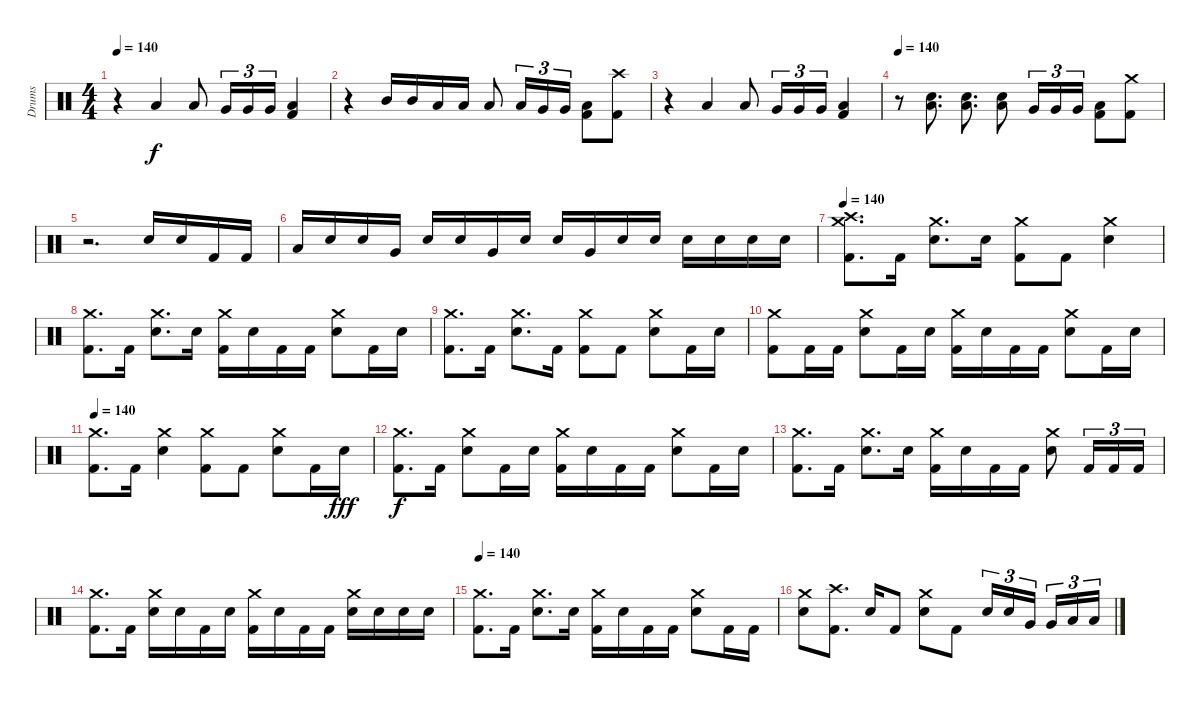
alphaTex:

\track ("Drums" "Drums") {instrument percussion}
\staff {score}
\articulation defaults
\ts (4 4)
\tempo 140
\clef neutral
\ks c
r.4{dy fff} "Low Floor Tom (hit)".4{dy f} "Low Floor Tom (hit)".8 "Very Low Tom (hit)".16{tu (3 2)} "Very Low Tom (hit)".16{tu (3 2)} "Very Low Tom (hit)".16{tu (3 2)} ("Low Floor Tom (hit)" "Kick (hit) 2").4 |
r.4 "Mid Tom (hit)".16 "Mid Tom (hit)".16 "Low Floor Tom (hit)".16 "Low Floor Tom (hit)".16 "Low Floor Tom (hit)".8 "Low Tom (hit)".16{tu (3 2)} "Very Low Tom (hit)".16{tu (3 2)} "Very Low Tom (hit)".16{tu (3 2)} ("Low Floor Tom (hit)" "Kick (hit) 2").8 ("Crash high (hit)" "Kick (hit) 2").8 |
r.4 "Low Floor Tom (hit)".4 "Low Floor Tom (hit)".8 "Very Low Tom (hit)".16{tu (3 2)} "Very Low Tom (hit)".16{tu (3 2)} "Very Low Tom (hit)".16{tu (3 2)} ("Low Floor Tom (hit)" "Kick (hit) 2").4 |
\tempo 140
r.8 ("Low Floor Tom (hit)" "Electric Snare (hit)").8{d} ("Low Floor Tom (hit)" "Electric Snare (hit)").8{d} ("Low Floor Tom (hit)" "Electric Snare (hit)").8 "Very Low Tom (hit)".16{tu (3 2)} "Very Low Tom (hit)".16{tu (3 2)} "Very Low Tom (hit)".16{tu (3 2)} ("Low Floor Tom (hit)" "Kick (hit) 2").8 ("Crash medium (hit)" "Kick (hit) 2").8 |
r.2{d} "Electric Snare (hit)".16 "Electric Snare (hit)".16 "Kick (hit) 2".16 "Kick (hit) 2".16 |
"Low Tom (hit)".16 "Electric Snare (hit)".16 "Electric Snare (hit)".16 "Very Low Tom (hit)".16 "Electric Snare (hit)".16 "Electric Snare (hit)".16 "Very Low Tom (hit)".16 "Electric Snare (hit)".16 "Electric Snare (hit)".16 "Very Low Tom (hit)".16 "Electric Snare (hit)".16 "Electric Snare (hit)".16 "Electric Snare (hit)".16 "Electric Snare (hit)".16 "Electric Snare (hit)".16 "Electric Snare (hit)".16 |
\tempo 140
("Crash medium (hit)" "Crash high (hit)" "Kick (hit) 2").8{d} "Kick (hit) 2".16 ("Crash medium (hit)" "Electric Snare (hit)").8{d} "Electric Snare (hit)".16 ("Crash medium (hit)" "Kick (hit) 2").8 "Kick (hit) 2".8 ("Crash medium (hit)" "Electric Snare (hit)").4 |
("Crash medium (hit)" "Kick (hit) 2").8{d} "Kick (hit) 2".16 ("Crash medium (hit)" "Electric Snare (hit)").8{d} "Electric Snare (hit)".16 ("Crash medium (hit)" "Kick (hit) 2").16 "Electric Snare (hit)".16 "Kick (hit) 2".16 "Kick (hit) 2".16 ("Crash medium (hit)" "Electric Snare (hit)").8 "Kick (hit) 2".16 "Electric Snare (hit)".16 |
("Crash medium (hit)" "Kick (hit) 2").8{d} "Kick (hit) 2".16 ("Crash medium (hit)" "Electric Snare (hit)").8{d} "Kick (hit) 2".16 ("Crash medium (hit)" "Kick (hit) 2").8 "Kick (hit) 2".8 ("Crash medium (hit)" "Electric Snare (hit)").8 "Kick (hit) 2".16 "Electric Snare (hit)".16 |
("Crash medium (hit)" "Kick (hit) 2").8 "Kick (hit) 2".16 "Kick (hit) 2".16 ("Crash medium (hit)" "Electric Snare (hit)").8 "Kick (hit) 2".16 "Electric Snare (hit)".16 ("Crash medium (hit)" "Kick (hit) 2").16 "Electric Snare (hit)".16 "Kick (hit) 2".16 "Kick (hit) 2".16 ("Crash medium (hit)" "Electric Snare (hit)").8 "Kick (hit) 2".16 "Electric Snare (hit)".16 |
\tempo 140
("Crash medium (hit)" "Kick (hit) 2").8{d} "Kick (hit) 2".16 ("Crash medium (hit)" "Electric Snare (hit)").4 ("Crash medium (hit)" "Kick (hit) 2").8 "Kick (hit) 2".8 ("Crash medium (hit)" "Electric Snare (hit)").8 "Kick (hit) 2".16 "Electric Snare (hit)".16{dy fff} |
("Crash medium (hit)" "Kick (hit) 2").8{d dy f} "Kick (hit) 2".16 ("Crash medium (hit)" "Electric Snare (hit)").8 "Kick (hit) 2".16 "Electric Snare (hit)".16 ("Crash medium (hit)" "Kick (hit) 2").16 "Electric Snare (hit)".16 "Kick (hit) 2".16 "Kick (hit) 2".16 ("Crash medium (hit)" "Electric Snare (hit)").8 "Kick (hit) 2".16 "Electric Snare (hit)".16 |
("Crash medium (hit)" "Kick (hit) 2").8{d} "Kick (hit) 2".16 ("Crash medium (hit)" "Electric Snare (hit)").8{d} "Electric Snare (hit)".16 ("Crash medium (hit)" "Kick (hit) 2").16 "Electric Snare (hit)".16 "Kick (hit) 2".16 "Kick (hit) 2".16 ("Crash medium (hit)" "Electric Snare (hit)").8 "Kick (hit) 2".16{tu (3 2)} "Kick (hit) 2".16{tu (3 2)} "Kick (hit) 2".16{tu (3 2)} |
("Crash medium (hit)" "Kick (hit) 2").8{d} "Kick (hit) 2".16 ("Crash medium (hit)" "Electric Snare (hit)").16 "Electric Snare (hit)".16 "Kick (hit) 2".16 "Electric Snare (hit)".16 ("Crash medium (hit)" "Kick (hit) 2").16 "Electric Snare (hit)".16 "Kick (hit) 2".16 "Kick (hit) 2".16 ("Crash medium (hit)" "Electric Snare (hit)").16 "Electric Snare (hit)".16 "Electric Snare (hit)".16 "Electric Snare (hit)".16 |
\tempo 140
("Crash medium (hit)" "Kick (hit) 2").8{d} "Kick (hit) 2".16 ("Crash medium (hit)" "Electric Snare (hit)").8{d} "Electric Snare (hit)".16 ("Crash medium (hit)" "Kick (hit) 2").16 "Electric Snare (hit)".16 "Kick (hit) 2".16 "Kick (hit) 2".16 ("Crash medium (hit)" "Electric Snare (hit)").8 "Kick (hit) 2".16 "Kick (hit) 2".16 |
("Crash medium (hit)" "Electric Snare (hit)").8 ("Crash high (hit)" "Kick (hit) 2").8{d} "Electric Snare (hit)".16 "Kick (hit) 2".8 ("Crash medium (hit)" "Electric Snare (hit)").8 "Kick (hit) 2".8 "Electric Snare (hit)".16{tu (3 2)} "Electric Snare (hit)".16{tu (3 2)} "Very Low Tom (hit)".16{tu (3 2)} "Very Low Tom (hit)".16{tu (3 2)} "Low Floor Tom (hit)".16{tu (3 2)} "Low Floor Tom (hit)".16{tu (3 2)}
